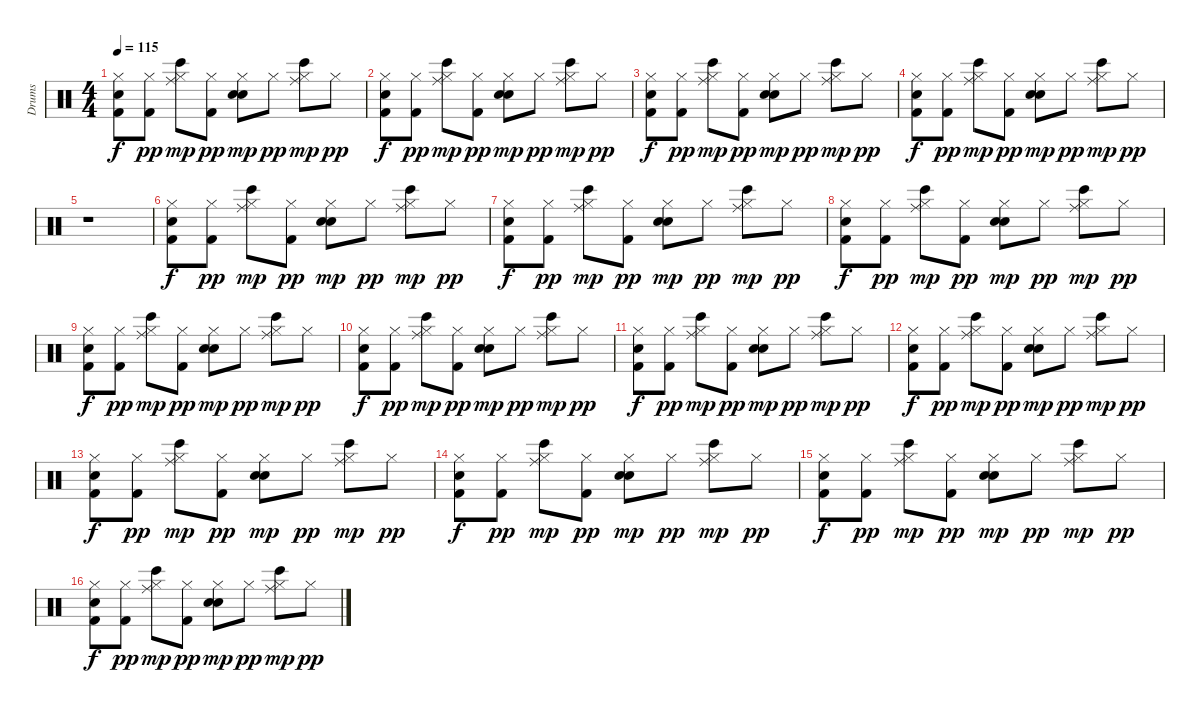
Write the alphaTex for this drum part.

\track ("Drums" "Drums") {instrument percussion}
\staff {score}
\articulation defaults
\ts (4 4)
\tempo 115
\clef neutral
\ks c
("Hi-Hat (closed)" "Hand Clap (hit)" "Kick (hit) 2").8{dy f} ("Hi-Hat (closed)" "Kick (hit) 2").8{dy pp} ("Hi-Hat (closed)" "Ride (middle)" "Bongo High (hit)").8{dy mp} ("Hi-Hat (closed)" "Kick (hit) 2").8{dy pp} ("Hi-Hat (closed)" "Hand Clap (hit)" "Electric Snare (hit)").8{dy mp} "Hi-Hat (closed)".8{dy pp} ("Hi-Hat (closed)" "Ride (middle)" "Bongo High (hit)").8{dy mp} "Hi-Hat (closed)".8{dy pp} |
("Hi-Hat (closed)" "Hand Clap (hit)" "Kick (hit) 2").8{dy f} ("Hi-Hat (closed)" "Kick (hit) 2").8{dy pp} ("Hi-Hat (closed)" "Ride (middle)" "Bongo High (hit)").8{dy mp} ("Hi-Hat (closed)" "Kick (hit) 2").8{dy pp} ("Hi-Hat (closed)" "Hand Clap (hit)" "Electric Snare (hit)").8{dy mp} "Hi-Hat (closed)".8{dy pp} ("Hi-Hat (closed)" "Ride (middle)" "Bongo High (hit)").8{dy mp} "Hi-Hat (closed)".8{dy pp} |
("Hi-Hat (closed)" "Hand Clap (hit)" "Kick (hit) 2").8{dy f} ("Hi-Hat (closed)" "Kick (hit) 2").8{dy pp} ("Hi-Hat (closed)" "Ride (middle)" "Bongo High (hit)").8{dy mp} ("Hi-Hat (closed)" "Kick (hit) 2").8{dy pp} ("Hi-Hat (closed)" "Hand Clap (hit)" "Electric Snare (hit)").8{dy mp} "Hi-Hat (closed)".8{dy pp} ("Hi-Hat (closed)" "Ride (middle)" "Bongo High (hit)").8{dy mp} "Hi-Hat (closed)".8{dy pp} |
("Hi-Hat (closed)" "Hand Clap (hit)" "Kick (hit) 2").8{dy f} ("Hi-Hat (closed)" "Kick (hit) 2").8{dy pp} ("Hi-Hat (closed)" "Ride (middle)" "Bongo High (hit)").8{dy mp} ("Hi-Hat (closed)" "Kick (hit) 2").8{dy pp} ("Hi-Hat (closed)" "Hand Clap (hit)" "Electric Snare (hit)").8{dy mp} "Hi-Hat (closed)".8{dy pp} ("Hi-Hat (closed)" "Ride (middle)" "Bongo High (hit)").8{dy mp} "Hi-Hat (closed)".8{dy pp} |
r.1 |
("Hi-Hat (closed)" "Hand Clap (hit)" "Kick (hit) 2").8{dy f} ("Hi-Hat (closed)" "Kick (hit) 2").8{dy pp} ("Hi-Hat (closed)" "Ride (middle)" "Bongo High (hit)").8{dy mp} ("Hi-Hat (closed)" "Kick (hit) 2").8{dy pp} ("Hi-Hat (closed)" "Hand Clap (hit)" "Electric Snare (hit)").8{dy mp} "Hi-Hat (closed)".8{dy pp} ("Hi-Hat (closed)" "Ride (middle)" "Bongo High (hit)").8{dy mp} "Hi-Hat (closed)".8{dy pp} |
("Hi-Hat (closed)" "Hand Clap (hit)" "Kick (hit) 2").8{dy f} ("Hi-Hat (closed)" "Kick (hit) 2").8{dy pp} ("Hi-Hat (closed)" "Ride (middle)" "Bongo High (hit)").8{dy mp} ("Hi-Hat (closed)" "Kick (hit) 2").8{dy pp} ("Hi-Hat (closed)" "Hand Clap (hit)" "Electric Snare (hit)").8{dy mp} "Hi-Hat (closed)".8{dy pp} ("Hi-Hat (closed)" "Ride (middle)" "Bongo High (hit)").8{dy mp} "Hi-Hat (closed)".8{dy pp} |
("Hi-Hat (closed)" "Hand Clap (hit)" "Kick (hit) 2").8{dy f} ("Hi-Hat (closed)" "Kick (hit) 2").8{dy pp} ("Hi-Hat (closed)" "Ride (middle)" "Bongo High (hit)").8{dy mp} ("Hi-Hat (closed)" "Kick (hit) 2").8{dy pp} ("Hi-Hat (closed)" "Hand Clap (hit)" "Electric Snare (hit)").8{dy mp} "Hi-Hat (closed)".8{dy pp} ("Hi-Hat (closed)" "Ride (middle)" "Bongo High (hit)").8{dy mp} "Hi-Hat (closed)".8{dy pp} |
("Hi-Hat (closed)" "Hand Clap (hit)" "Kick (hit) 2").8{dy f} ("Hi-Hat (closed)" "Kick (hit) 2").8{dy pp} ("Hi-Hat (closed)" "Ride (middle)" "Bongo High (hit)").8{dy mp} ("Hi-Hat (closed)" "Kick (hit) 2").8{dy pp} ("Hi-Hat (closed)" "Hand Clap (hit)" "Electric Snare (hit)").8{dy mp} "Hi-Hat (closed)".8{dy pp} ("Hi-Hat (closed)" "Ride (middle)" "Bongo High (hit)").8{dy mp} "Hi-Hat (closed)".8{dy pp} |
("Hi-Hat (closed)" "Hand Clap (hit)" "Kick (hit) 2").8{dy f} ("Hi-Hat (closed)" "Kick (hit) 2").8{dy pp} ("Hi-Hat (closed)" "Ride (middle)" "Bongo High (hit)").8{dy mp} ("Hi-Hat (closed)" "Kick (hit) 2").8{dy pp} ("Hi-Hat (closed)" "Hand Clap (hit)" "Electric Snare (hit)").8{dy mp} "Hi-Hat (closed)".8{dy pp} ("Hi-Hat (closed)" "Ride (middle)" "Bongo High (hit)").8{dy mp} "Hi-Hat (closed)".8{dy pp} |
("Hi-Hat (closed)" "Hand Clap (hit)" "Kick (hit) 2").8{dy f} ("Hi-Hat (closed)" "Kick (hit) 2").8{dy pp} ("Hi-Hat (closed)" "Ride (middle)" "Bongo High (hit)").8{dy mp} ("Hi-Hat (closed)" "Kick (hit) 2").8{dy pp} ("Hi-Hat (closed)" "Hand Clap (hit)" "Electric Snare (hit)").8{dy mp} "Hi-Hat (closed)".8{dy pp} ("Hi-Hat (closed)" "Ride (middle)" "Bongo High (hit)").8{dy mp} "Hi-Hat (closed)".8{dy pp} |
("Hi-Hat (closed)" "Hand Clap (hit)" "Kick (hit) 2").8{dy f} ("Hi-Hat (closed)" "Kick (hit) 2").8{dy pp} ("Hi-Hat (closed)" "Ride (middle)" "Bongo High (hit)").8{dy mp} ("Hi-Hat (closed)" "Kick (hit) 2").8{dy pp} ("Hi-Hat (closed)" "Hand Clap (hit)" "Electric Snare (hit)").8{dy mp} "Hi-Hat (closed)".8{dy pp} ("Hi-Hat (closed)" "Ride (middle)" "Bongo High (hit)").8{dy mp} "Hi-Hat (closed)".8{dy pp} |
("Hi-Hat (closed)" "Hand Clap (hit)" "Kick (hit) 2").8{dy f} ("Hi-Hat (closed)" "Kick (hit) 2").8{dy pp} ("Hi-Hat (closed)" "Ride (middle)" "Bongo High (hit)").8{dy mp} ("Hi-Hat (closed)" "Kick (hit) 2").8{dy pp} ("Hi-Hat (closed)" "Hand Clap (hit)" "Electric Snare (hit)").8{dy mp} "Hi-Hat (closed)".8{dy pp} ("Hi-Hat (closed)" "Ride (middle)" "Bongo High (hit)").8{dy mp} "Hi-Hat (closed)".8{dy pp} |
("Hi-Hat (closed)" "Hand Clap (hit)" "Kick (hit) 2").8{dy f} ("Hi-Hat (closed)" "Kick (hit) 2").8{dy pp} ("Hi-Hat (closed)" "Ride (middle)" "Bongo High (hit)").8{dy mp} ("Hi-Hat (closed)" "Kick (hit) 2").8{dy pp} ("Hi-Hat (closed)" "Hand Clap (hit)" "Electric Snare (hit)").8{dy mp} "Hi-Hat (closed)".8{dy pp} ("Hi-Hat (closed)" "Ride (middle)" "Bongo High (hit)").8{dy mp} "Hi-Hat (closed)".8{dy pp} |
("Hi-Hat (closed)" "Hand Clap (hit)" "Kick (hit) 2").8{dy f} ("Hi-Hat (closed)" "Kick (hit) 2").8{dy pp} ("Hi-Hat (closed)" "Ride (middle)" "Bongo High (hit)").8{dy mp} ("Hi-Hat (closed)" "Kick (hit) 2").8{dy pp} ("Hi-Hat (closed)" "Hand Clap (hit)" "Electric Snare (hit)").8{dy mp} "Hi-Hat (closed)".8{dy pp} ("Hi-Hat (closed)" "Ride (middle)" "Bongo High (hit)").8{dy mp} "Hi-Hat (closed)".8{dy pp} |
("Hi-Hat (closed)" "Hand Clap (hit)" "Kick (hit) 2").8{dy f} ("Hi-Hat (closed)" "Kick (hit) 2").8{dy pp} ("Hi-Hat (closed)" "Ride (middle)" "Bongo High (hit)").8{dy mp} ("Hi-Hat (closed)" "Kick (hit) 2").8{dy pp} ("Hi-Hat (closed)" "Hand Clap (hit)" "Electric Snare (hit)").8{dy mp} "Hi-Hat (closed)".8{dy pp} ("Hi-Hat (closed)" "Ride (middle)" "Bongo High (hit)").8{dy mp} "Hi-Hat (closed)".8{dy pp}
